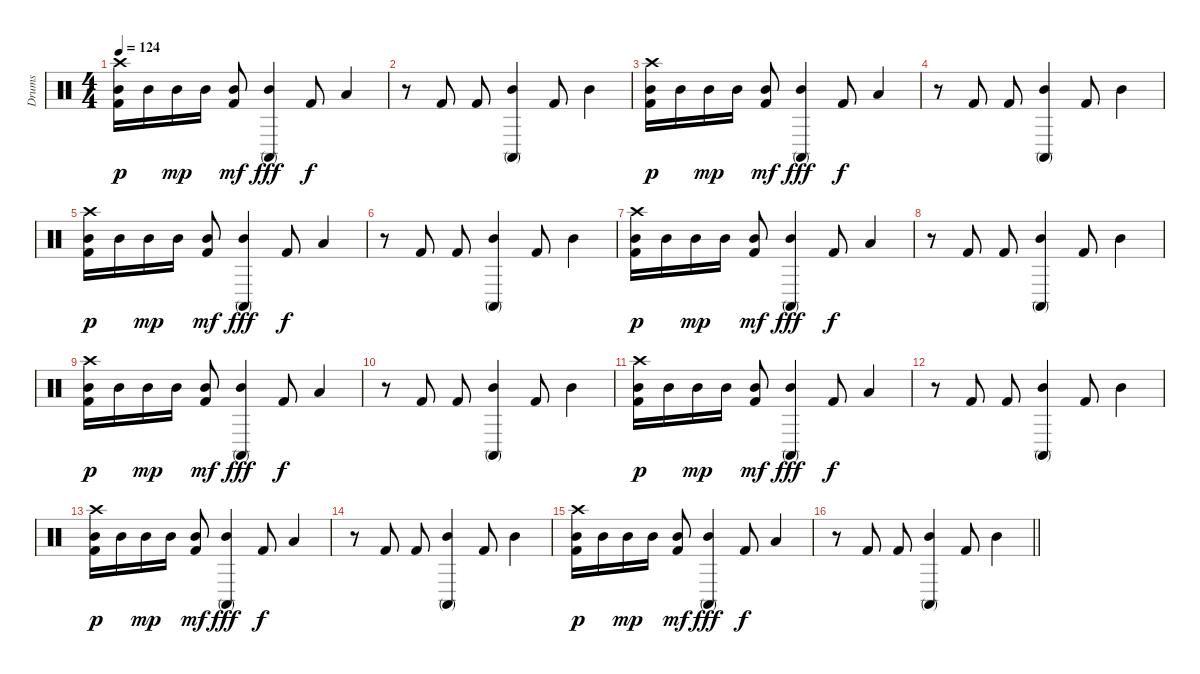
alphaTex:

\track ("Drums" "Drums") {instrument percussion}
\staff {score}
\articulation defaults
\ts (4 4)
\tempo 124
\clef neutral
\ks c
("Crash high (hit)" "Mid Tom (hit)" "Kick (hit) 2").16{dy p} "Mid Tom (hit)".16 "Mid Tom (hit)".16{dy mp} "Mid Tom (hit)".16 ("Mid Tom (hit)" "Kick (hit) 2").8{dy mf} ("Mid Tom (hit)" "Conga high (mute)").4{dy fff} "Kick (hit) 2".8{dy f} "Low Tom (hit)".4 |
r.8 "Kick (hit) 2".8 "Kick (hit) 2".8 ("Mid Tom (hit)" "Conga high (mute)").4 "Kick (hit) 2".8 "Mid Tom (hit)".4 |
("Crash high (hit)" "Mid Tom (hit)" "Kick (hit) 2").16{dy p} "Mid Tom (hit)".16 "Mid Tom (hit)".16{dy mp} "Mid Tom (hit)".16 ("Mid Tom (hit)" "Kick (hit) 2").8{dy mf} ("Mid Tom (hit)" "Conga high (mute)").4{dy fff} "Kick (hit) 2".8{dy f} "Low Tom (hit)".4 |
r.8 "Kick (hit) 2".8 "Kick (hit) 2".8 ("Mid Tom (hit)" "Conga high (mute)").4 "Kick (hit) 2".8 "Mid Tom (hit)".4 |
("Crash high (hit)" "Mid Tom (hit)" "Kick (hit) 2").16{dy p} "Mid Tom (hit)".16 "Mid Tom (hit)".16{dy mp} "Mid Tom (hit)".16 ("Mid Tom (hit)" "Kick (hit) 2").8{dy mf} ("Mid Tom (hit)" "Conga high (mute)").4{dy fff} "Kick (hit) 2".8{dy f} "Low Tom (hit)".4 |
r.8 "Kick (hit) 2".8 "Kick (hit) 2".8 ("Mid Tom (hit)" "Conga high (mute)").4 "Kick (hit) 2".8 "Mid Tom (hit)".4 |
("Crash high (hit)" "Mid Tom (hit)" "Kick (hit) 2").16{dy p} "Mid Tom (hit)".16 "Mid Tom (hit)".16{dy mp} "Mid Tom (hit)".16 ("Mid Tom (hit)" "Kick (hit) 2").8{dy mf} ("Mid Tom (hit)" "Conga high (mute)").4{dy fff} "Kick (hit) 2".8{dy f} "Low Tom (hit)".4 |
r.8 "Kick (hit) 2".8 "Kick (hit) 2".8 ("Mid Tom (hit)" "Conga high (mute)").4 "Kick (hit) 2".8 "Mid Tom (hit)".4 |
("Crash high (hit)" "Mid Tom (hit)" "Kick (hit) 2").16{dy p} "Mid Tom (hit)".16 "Mid Tom (hit)".16{dy mp} "Mid Tom (hit)".16 ("Mid Tom (hit)" "Kick (hit) 2").8{dy mf} ("Mid Tom (hit)" "Conga high (mute)").4{dy fff} "Kick (hit) 2".8{dy f} "Low Tom (hit)".4 |
r.8 "Kick (hit) 2".8 "Kick (hit) 2".8 ("Mid Tom (hit)" "Conga high (mute)").4 "Kick (hit) 2".8 "Mid Tom (hit)".4 |
("Crash high (hit)" "Mid Tom (hit)" "Kick (hit) 2").16{dy p} "Mid Tom (hit)".16 "Mid Tom (hit)".16{dy mp} "Mid Tom (hit)".16 ("Mid Tom (hit)" "Kick (hit) 2").8{dy mf} ("Mid Tom (hit)" "Conga high (mute)").4{dy fff} "Kick (hit) 2".8{dy f} "Low Tom (hit)".4 |
r.8 "Kick (hit) 2".8 "Kick (hit) 2".8 ("Mid Tom (hit)" "Conga high (mute)").4 "Kick (hit) 2".8 "Mid Tom (hit)".4 |
("Crash high (hit)" "Mid Tom (hit)" "Kick (hit) 2").16{dy p} "Mid Tom (hit)".16 "Mid Tom (hit)".16{dy mp} "Mid Tom (hit)".16 ("Mid Tom (hit)" "Kick (hit) 2").8{dy mf} ("Mid Tom (hit)" "Conga high (mute)").4{dy fff} "Kick (hit) 2".8{dy f} "Low Tom (hit)".4 |
r.8 "Kick (hit) 2".8 "Kick (hit) 2".8 ("Mid Tom (hit)" "Conga high (mute)").4 "Kick (hit) 2".8 "Mid Tom (hit)".4 |
("Crash high (hit)" "Mid Tom (hit)" "Kick (hit) 2").16{dy p} "Mid Tom (hit)".16 "Mid Tom (hit)".16{dy mp} "Mid Tom (hit)".16 ("Mid Tom (hit)" "Kick (hit) 2").8{dy mf} ("Mid Tom (hit)" "Conga high (mute)").4{dy fff} "Kick (hit) 2".8{dy f} "Low Tom (hit)".4 |
\barLineRight lightlight
r.8 "Kick (hit) 2".8 "Kick (hit) 2".8 ("Mid Tom (hit)" "Conga high (mute)").4 "Kick (hit) 2".8 "Mid Tom (hit)".4
